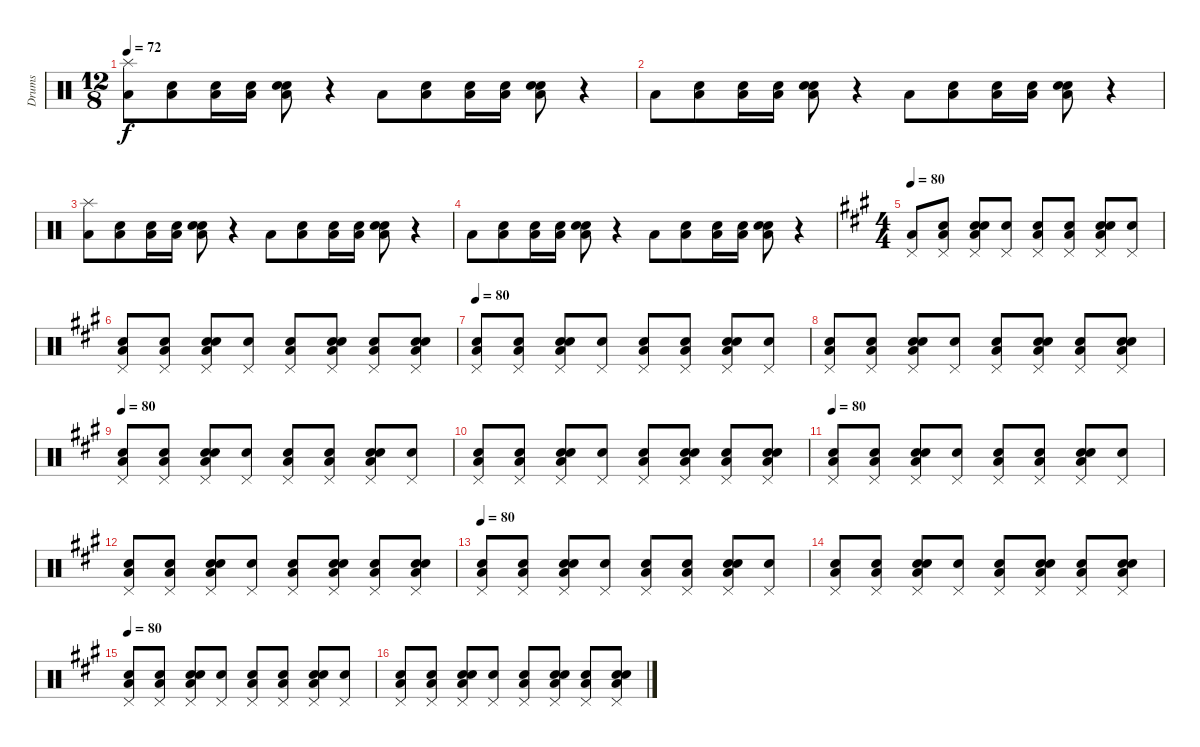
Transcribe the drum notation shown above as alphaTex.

\track ("Drums" "Drums") {instrument percussion}
\staff {score}
\articulation defaults
\ts (12 8)
\tempo 72
\clef neutral
\ks c
("Low Floor Tom (hit)" "Splash (hit)").8{dy f} ("Snare (hit)" "Low Floor Tom (hit)").8 ("Snare (hit)" "Low Floor Tom (hit)").16 ("Snare (hit)" "Low Floor Tom (hit)").16 ("Snare (hit)" "Electric Snare (hit)" "Low Floor Tom (hit)").8 r.4 "Low Floor Tom (hit)".8 ("Snare (hit)" "Low Floor Tom (hit)").8 ("Snare (hit)" "Low Floor Tom (hit)").16 ("Snare (hit)" "Low Floor Tom (hit)").16 ("Snare (hit)" "Electric Snare (hit)" "Low Floor Tom (hit)").8 r.4 |
"Low Floor Tom (hit)".8 ("Snare (hit)" "Low Floor Tom (hit)").8 ("Snare (hit)" "Low Floor Tom (hit)").16 ("Snare (hit)" "Low Floor Tom (hit)").16 ("Snare (hit)" "Electric Snare (hit)" "Low Floor Tom (hit)").8 r.4 "Low Floor Tom (hit)".8 ("Snare (hit)" "Low Floor Tom (hit)").8 ("Snare (hit)" "Low Floor Tom (hit)").16 ("Snare (hit)" "Low Floor Tom (hit)").16 ("Snare (hit)" "Electric Snare (hit)" "Low Floor Tom (hit)").8 r.4 |
("Low Floor Tom (hit)" "Splash (hit)").8 ("Snare (hit)" "Low Floor Tom (hit)").8 ("Snare (hit)" "Low Floor Tom (hit)").16 ("Snare (hit)" "Low Floor Tom (hit)").16 ("Snare (hit)" "Electric Snare (hit)" "Low Floor Tom (hit)").8 r.4 "Low Floor Tom (hit)".8 ("Snare (hit)" "Low Floor Tom (hit)").8 ("Snare (hit)" "Low Floor Tom (hit)").16 ("Snare (hit)" "Low Floor Tom (hit)").16 ("Snare (hit)" "Electric Snare (hit)" "Low Floor Tom (hit)").8 r.4 |
"Low Floor Tom (hit)".8 ("Snare (hit)" "Low Floor Tom (hit)").8 ("Snare (hit)" "Low Floor Tom (hit)").16 ("Snare (hit)" "Low Floor Tom (hit)").16 ("Snare (hit)" "Electric Snare (hit)" "Low Floor Tom (hit)").8 r.4 "Low Floor Tom (hit)".8 ("Snare (hit)" "Low Floor Tom (hit)").8 ("Snare (hit)" "Low Floor Tom (hit)").16 ("Snare (hit)" "Low Floor Tom (hit)").16 ("Snare (hit)" "Electric Snare (hit)" "Low Floor Tom (hit)").8 r.4 |
\ts (4 4)
\tempo 80
\ks f#minor
("Low Floor Tom (hit)" "Pedal Hi-Hat (hit)").8 ("Snare (hit)" "Low Floor Tom (hit)" "Pedal Hi-Hat (hit)").8 ("Snare (hit)" "Electric Snare (hit)" "Low Floor Tom (hit)" "Pedal Hi-Hat (hit)").8 ("Snare (hit)" "Pedal Hi-Hat (hit)").8 ("Snare (hit)" "Low Floor Tom (hit)" "Pedal Hi-Hat (hit)").8 ("Snare (hit)" "Low Floor Tom (hit)" "Pedal Hi-Hat (hit)").8 ("Snare (hit)" "Electric Snare (hit)" "Low Floor Tom (hit)" "Pedal Hi-Hat (hit)").8 ("Snare (hit)" "Pedal Hi-Hat (hit)").8 |
("Snare (hit)" "Low Floor Tom (hit)" "Pedal Hi-Hat (hit)").8 ("Snare (hit)" "Low Floor Tom (hit)" "Pedal Hi-Hat (hit)").8 ("Snare (hit)" "Electric Snare (hit)" "Low Floor Tom (hit)" "Pedal Hi-Hat (hit)").8 ("Snare (hit)" "Pedal Hi-Hat (hit)").8 ("Snare (hit)" "Low Floor Tom (hit)" "Pedal Hi-Hat (hit)").8 ("Snare (hit)" "Electric Snare (hit)" "Low Floor Tom (hit)" "Pedal Hi-Hat (hit)").8 ("Snare (hit)" "Low Floor Tom (hit)" "Pedal Hi-Hat (hit)").8 ("Snare (hit)" "Electric Snare (hit)" "Low Floor Tom (hit)" "Pedal Hi-Hat (hit)").8 |
\tempo 80
("Snare (hit)" "Low Floor Tom (hit)" "Pedal Hi-Hat (hit)").8 ("Snare (hit)" "Low Floor Tom (hit)" "Pedal Hi-Hat (hit)").8 ("Snare (hit)" "Electric Snare (hit)" "Low Floor Tom (hit)" "Pedal Hi-Hat (hit)").8 ("Snare (hit)" "Pedal Hi-Hat (hit)").8 ("Snare (hit)" "Low Floor Tom (hit)" "Pedal Hi-Hat (hit)").8 ("Snare (hit)" "Low Floor Tom (hit)" "Pedal Hi-Hat (hit)").8 ("Snare (hit)" "Electric Snare (hit)" "Low Floor Tom (hit)" "Pedal Hi-Hat (hit)").8 ("Snare (hit)" "Pedal Hi-Hat (hit)").8 |
("Snare (hit)" "Low Floor Tom (hit)" "Pedal Hi-Hat (hit)").8 ("Snare (hit)" "Low Floor Tom (hit)" "Pedal Hi-Hat (hit)").8 ("Snare (hit)" "Electric Snare (hit)" "Low Floor Tom (hit)" "Pedal Hi-Hat (hit)").8 ("Snare (hit)" "Pedal Hi-Hat (hit)").8 ("Snare (hit)" "Low Floor Tom (hit)" "Pedal Hi-Hat (hit)").8 ("Snare (hit)" "Electric Snare (hit)" "Low Floor Tom (hit)" "Pedal Hi-Hat (hit)").8 ("Snare (hit)" "Low Floor Tom (hit)" "Pedal Hi-Hat (hit)").8 ("Snare (hit)" "Electric Snare (hit)" "Low Floor Tom (hit)" "Pedal Hi-Hat (hit)").8 |
\tempo 80
("Snare (hit)" "Low Floor Tom (hit)" "Pedal Hi-Hat (hit)").8 ("Snare (hit)" "Low Floor Tom (hit)" "Pedal Hi-Hat (hit)").8 ("Snare (hit)" "Electric Snare (hit)" "Low Floor Tom (hit)" "Pedal Hi-Hat (hit)").8 ("Snare (hit)" "Pedal Hi-Hat (hit)").8 ("Snare (hit)" "Low Floor Tom (hit)" "Pedal Hi-Hat (hit)").8 ("Snare (hit)" "Low Floor Tom (hit)" "Pedal Hi-Hat (hit)").8 ("Snare (hit)" "Electric Snare (hit)" "Low Floor Tom (hit)" "Pedal Hi-Hat (hit)").8 ("Snare (hit)" "Pedal Hi-Hat (hit)").8 |
("Snare (hit)" "Low Floor Tom (hit)" "Pedal Hi-Hat (hit)").8 ("Snare (hit)" "Low Floor Tom (hit)" "Pedal Hi-Hat (hit)").8 ("Snare (hit)" "Electric Snare (hit)" "Low Floor Tom (hit)" "Pedal Hi-Hat (hit)").8 ("Snare (hit)" "Pedal Hi-Hat (hit)").8 ("Snare (hit)" "Low Floor Tom (hit)" "Pedal Hi-Hat (hit)").8 ("Snare (hit)" "Electric Snare (hit)" "Low Floor Tom (hit)" "Pedal Hi-Hat (hit)").8 ("Snare (hit)" "Low Floor Tom (hit)" "Pedal Hi-Hat (hit)").8 ("Snare (hit)" "Electric Snare (hit)" "Low Floor Tom (hit)" "Pedal Hi-Hat (hit)").8 |
\tempo 80
("Snare (hit)" "Low Floor Tom (hit)" "Pedal Hi-Hat (hit)").8 ("Snare (hit)" "Low Floor Tom (hit)" "Pedal Hi-Hat (hit)").8 ("Snare (hit)" "Electric Snare (hit)" "Low Floor Tom (hit)" "Pedal Hi-Hat (hit)").8 ("Snare (hit)" "Pedal Hi-Hat (hit)").8 ("Snare (hit)" "Low Floor Tom (hit)" "Pedal Hi-Hat (hit)").8 ("Snare (hit)" "Low Floor Tom (hit)" "Pedal Hi-Hat (hit)").8 ("Snare (hit)" "Electric Snare (hit)" "Low Floor Tom (hit)" "Pedal Hi-Hat (hit)").8 ("Snare (hit)" "Pedal Hi-Hat (hit)").8 |
("Snare (hit)" "Low Floor Tom (hit)" "Pedal Hi-Hat (hit)").8 ("Snare (hit)" "Low Floor Tom (hit)" "Pedal Hi-Hat (hit)").8 ("Snare (hit)" "Electric Snare (hit)" "Low Floor Tom (hit)" "Pedal Hi-Hat (hit)").8 ("Snare (hit)" "Pedal Hi-Hat (hit)").8 ("Snare (hit)" "Low Floor Tom (hit)" "Pedal Hi-Hat (hit)").8 ("Snare (hit)" "Electric Snare (hit)" "Low Floor Tom (hit)" "Pedal Hi-Hat (hit)").8 ("Snare (hit)" "Low Floor Tom (hit)" "Pedal Hi-Hat (hit)").8 ("Snare (hit)" "Electric Snare (hit)" "Low Floor Tom (hit)" "Pedal Hi-Hat (hit)").8 |
\tempo 80
("Snare (hit)" "Low Floor Tom (hit)" "Pedal Hi-Hat (hit)").8 ("Snare (hit)" "Low Floor Tom (hit)" "Pedal Hi-Hat (hit)").8 ("Snare (hit)" "Electric Snare (hit)" "Low Floor Tom (hit)" "Pedal Hi-Hat (hit)").8 ("Snare (hit)" "Pedal Hi-Hat (hit)").8 ("Snare (hit)" "Low Floor Tom (hit)" "Pedal Hi-Hat (hit)").8 ("Snare (hit)" "Low Floor Tom (hit)" "Pedal Hi-Hat (hit)").8 ("Snare (hit)" "Electric Snare (hit)" "Low Floor Tom (hit)" "Pedal Hi-Hat (hit)").8 ("Snare (hit)" "Pedal Hi-Hat (hit)").8 |
("Snare (hit)" "Low Floor Tom (hit)" "Pedal Hi-Hat (hit)").8 ("Snare (hit)" "Low Floor Tom (hit)" "Pedal Hi-Hat (hit)").8 ("Snare (hit)" "Electric Snare (hit)" "Low Floor Tom (hit)" "Pedal Hi-Hat (hit)").8 ("Snare (hit)" "Pedal Hi-Hat (hit)").8 ("Snare (hit)" "Low Floor Tom (hit)" "Pedal Hi-Hat (hit)").8 ("Snare (hit)" "Electric Snare (hit)" "Low Floor Tom (hit)" "Pedal Hi-Hat (hit)").8 ("Snare (hit)" "Low Floor Tom (hit)" "Pedal Hi-Hat (hit)").8 ("Snare (hit)" "Electric Snare (hit)" "Low Floor Tom (hit)" "Pedal Hi-Hat (hit)").8 |
\tempo 80
("Snare (hit)" "Low Floor Tom (hit)" "Pedal Hi-Hat (hit)").8 ("Snare (hit)" "Low Floor Tom (hit)" "Pedal Hi-Hat (hit)").8 ("Snare (hit)" "Electric Snare (hit)" "Low Floor Tom (hit)" "Pedal Hi-Hat (hit)").8 ("Snare (hit)" "Pedal Hi-Hat (hit)").8 ("Snare (hit)" "Low Floor Tom (hit)" "Pedal Hi-Hat (hit)").8 ("Snare (hit)" "Low Floor Tom (hit)" "Pedal Hi-Hat (hit)").8 ("Snare (hit)" "Electric Snare (hit)" "Low Floor Tom (hit)" "Pedal Hi-Hat (hit)").8 ("Snare (hit)" "Pedal Hi-Hat (hit)").8 |
("Snare (hit)" "Low Floor Tom (hit)" "Pedal Hi-Hat (hit)").8 ("Snare (hit)" "Low Floor Tom (hit)" "Pedal Hi-Hat (hit)").8 ("Snare (hit)" "Electric Snare (hit)" "Low Floor Tom (hit)" "Pedal Hi-Hat (hit)").8 ("Snare (hit)" "Pedal Hi-Hat (hit)").8 ("Snare (hit)" "Low Floor Tom (hit)" "Pedal Hi-Hat (hit)").8 ("Snare (hit)" "Electric Snare (hit)" "Low Floor Tom (hit)" "Pedal Hi-Hat (hit)").8 ("Snare (hit)" "Low Floor Tom (hit)" "Pedal Hi-Hat (hit)").8 ("Snare (hit)" "Electric Snare (hit)" "Low Floor Tom (hit)" "Pedal Hi-Hat (hit)").8
